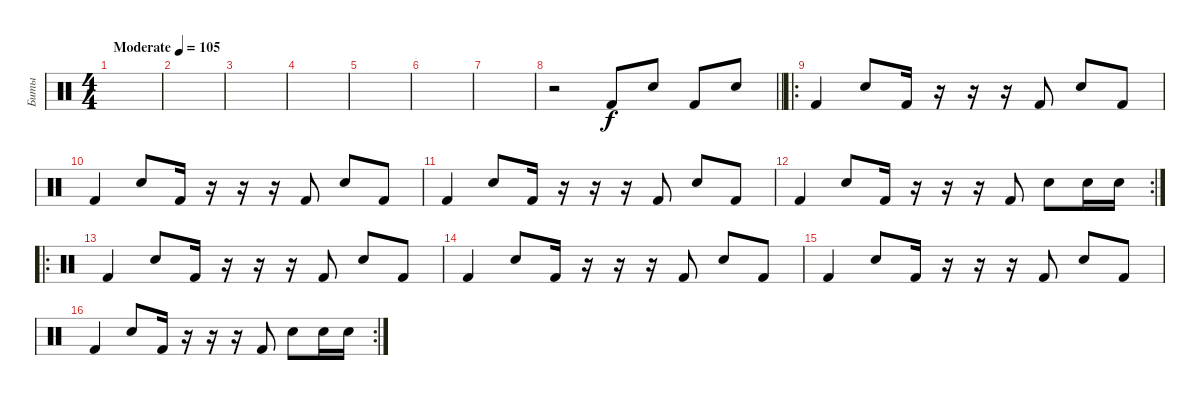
\track ("Биты" "Биты") {solo instrument percussion}
\staff {score}
\articulation defaults
\ts (4 4)
\tempo (105 "Moderate")
\clef neutral
\ks c
|
|
|
|
|
|
|
\barLineRight lightlight
r.2 "Kick (hit) 2".8 "Electric Snare (hit)".8 "Kick (hit) 2".8 "Electric Snare (hit)".8 |
\ro "Kick (hit) 2".4 "Electric Snare (hit)".8 "Kick (hit) 2".16
r.16 r.16 r.16 "Kick (hit) 2".8 "Electric Snare (hit)".8 "Kick (hit) 2".8 |
"Kick (hit) 2".4 "Electric Snare (hit)".8 "Kick (hit) 2".16 r.16 r.16 r.16 "Kick (hit) 2".8 "Electric Snare (hit)".8 "Kick (hit) 2".8 |
"Kick (hit) 2".4 "Electric Snare (hit)".8 "Kick (hit) 2".16 r.16 r.16 r.16 "Kick (hit) 2".8 "Electric Snare (hit)".8 "Kick (hit) 2".8 |
\rc 2 "Kick (hit) 2".4 "Electric Snare (hit)".8 "Kick (hit) 2".16
r.16 r.16 r.16 "Kick (hit) 2".8 "Electric Snare (hit)".8 "Electric Snare (hit)".16 "Electric Snare (hit)".16 |
\ro "Kick (hit) 2".4 "Electric Snare (hit)".8 "Kick (hit) 2".16
r.16 r.16 r.16 "Kick (hit) 2".8 "Electric Snare (hit)".8 "Kick (hit) 2".8 |
"Kick (hit) 2".4 "Electric Snare (hit)".8 "Kick (hit) 2".16 r.16 r.16 r.16 "Kick (hit) 2".8 "Electric Snare (hit)".8 "Kick (hit) 2".8 |
"Kick (hit) 2".4 "Electric Snare (hit)".8 "Kick (hit) 2".16 r.16 r.16 r.16 "Kick (hit) 2".8 "Electric Snare (hit)".8 "Kick (hit) 2".8 |
\rc 2 "Kick (hit) 2".4 "Electric Snare (hit)".8 "Kick (hit) 2".16
r.16 r.16 r.16 "Kick (hit) 2".8 "Electric Snare (hit)".8 "Electric Snare (hit)".16 "Electric Snare (hit)".16
